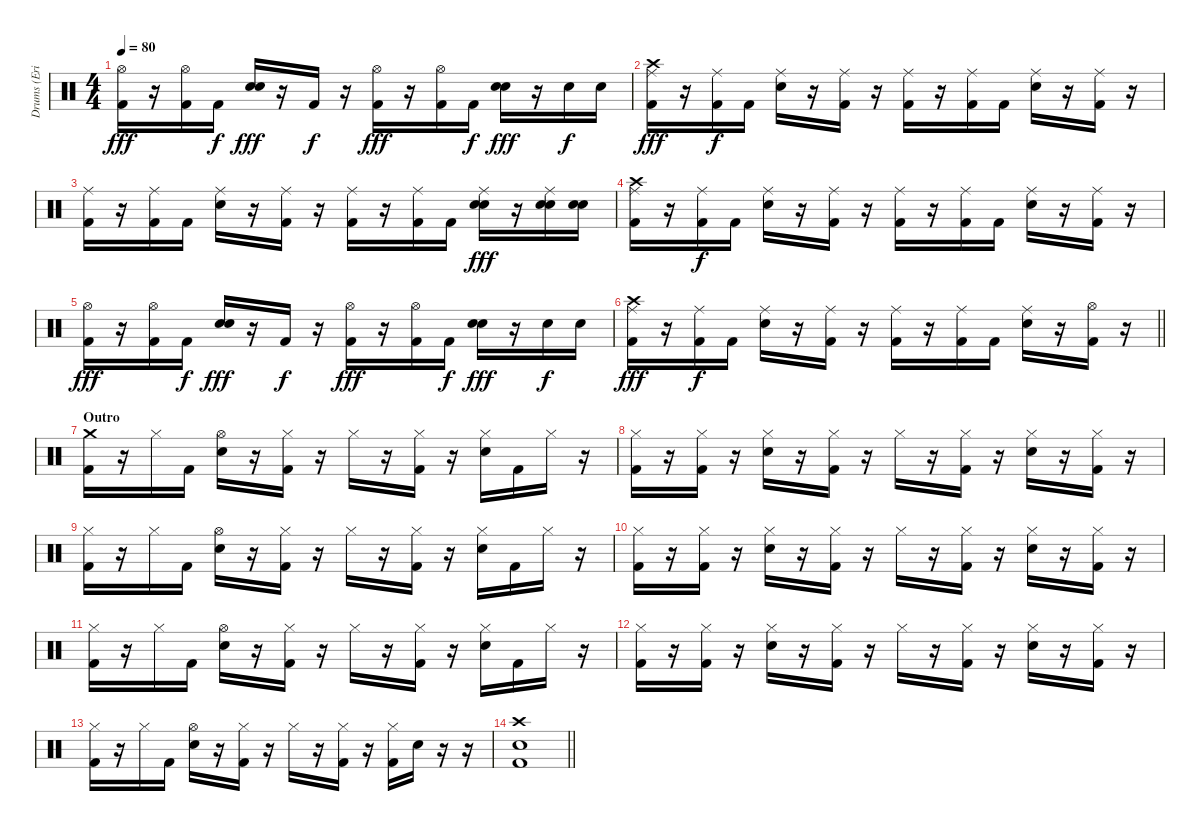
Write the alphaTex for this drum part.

\track ("Drums (Eric Kretz)" "Drums (Eri") {instrument percussion}
\staff {score}
\articulation defaults
\ts (4 4)
\tempo 80
\clef neutral
\ks c
("Hi-Hat (open)" "Kick (hit) 2").16{dy fff} r.16 ("Hi-Hat (open)" "Kick (hit) 2").16 "Kick (hit) 2".16{dy f} ("Snare (hit) 2" "Electric Snare (hit)").16{dy fff} r.16 "Kick (hit) 2".16{dy f} r.16 ("Hi-Hat (open)" "Kick (hit) 2").16{dy fff} r.16 ("Hi-Hat (open)" "Kick (hit) 2").16 "Kick (hit) 2".16{dy f} ("Snare (hit) 2" "Electric Snare (hit)").16{dy fff} r.16 "Electric Snare (hit)".16{dy f} "Electric Snare (hit)".16 |
("Crash high (hit)" "Ride (middle)" "Kick (hit) 2").16{dy fff} r.16 ("Ride (middle)" "Kick (hit) 2").16{dy f} "Kick (hit) 2".16 ("Ride (middle)" "Electric Snare (hit)").16 r.16 ("Ride (middle)" "Kick (hit) 2").16 r.16 ("Ride (middle)" "Kick (hit) 2").16 r.16 ("Ride (middle)" "Kick (hit) 2").16 "Kick (hit) 2".16 ("Ride (middle)" "Electric Snare (hit)").16 r.16 ("Ride (middle)" "Kick (hit) 2").16 r.16 |
("Ride (middle)" "Kick (hit) 2").16 r.16 ("Ride (middle)" "Kick (hit) 2").16 "Kick (hit) 2".16 ("Ride (middle)" "Electric Snare (hit)").16 r.16 ("Ride (middle)" "Kick (hit) 2").16 r.16 ("Ride (middle)" "Kick (hit) 2").16 r.16 ("Ride (middle)" "Kick (hit) 2").16 "Kick (hit) 2".16 ("Ride (middle)" "Snare (hit) 2" "Electric Snare (hit)").16{dy fff} r.16 ("Ride (middle)" "Snare (hit) 2" "Electric Snare (hit)").16 ("Snare (hit) 2" "Electric Snare (hit)").16 |
("Crash high (hit)" "Ride (middle)" "Kick (hit) 2").16 r.16 ("Ride (middle)" "Kick (hit) 2").16{dy f} "Kick (hit) 2".16 ("Ride (middle)" "Electric Snare (hit)").16 r.16 ("Ride (middle)" "Kick (hit) 2").16 r.16 ("Ride (middle)" "Kick (hit) 2").16 r.16 ("Ride (middle)" "Kick (hit) 2").16 "Kick (hit) 2".16 ("Ride (middle)" "Electric Snare (hit)").16 r.16 ("Ride (middle)" "Kick (hit) 2").16 r.16 |
("Hi-Hat (open)" "Kick (hit) 2").16{dy fff} r.16 ("Hi-Hat (open)" "Kick (hit) 2").16 "Kick (hit) 2".16{dy f} ("Snare (hit) 2" "Electric Snare (hit)").16{dy fff} r.16 "Kick (hit) 2".16{dy f} r.16 ("Hi-Hat (open)" "Kick (hit) 2").16{dy fff} r.16 ("Hi-Hat (open)" "Kick (hit) 2").16 "Kick (hit) 2".16{dy f} ("Snare (hit) 2" "Electric Snare (hit)").16{dy fff} r.16 "Electric Snare (hit)".16{dy f} "Electric Snare (hit)".16 |
\barLineRight lightlight
("Crash high (hit)" "Ride (middle)" "Kick (hit) 2").16{dy fff} r.16 ("Ride (middle)" "Kick (hit) 2").16{dy f} "Kick (hit) 2".16 ("Ride (middle)" "Electric Snare (hit)").16 r.16 ("Ride (middle)" "Kick (hit) 2").16 r.16 ("Ride (middle)" "Kick (hit) 2").16 r.16 ("Ride (middle)" "Kick (hit) 2").16 "Kick (hit) 2".16 ("Ride (middle)" "Electric Snare (hit)").16 r.16 ("Hi-Hat (open)" "Kick (hit) 2").16 r.16 |
\section ("" "Outro")
("Crash medium (hit)" "Kick (hit) 2").16 r.16 "Hi-Hat (closed)".16 "Kick (hit) 2".16 ("Hi-Hat (open)" "Electric Snare (hit)").16 r.16 ("Hi-Hat (closed)" "Kick (hit) 2").16 r.16 "Hi-Hat (closed)".16 r.16 ("Hi-Hat (closed)" "Kick (hit) 2").16 r.16 ("Hi-Hat (closed)" "Electric Snare (hit)").16 "Kick (hit) 2".16 "Hi-Hat (closed)".16 r.16 |
("Hi-Hat (closed)" "Kick (hit) 2").16 r.16 ("Hi-Hat (closed)" "Kick (hit) 2").16 r.16 ("Hi-Hat (closed)" "Electric Snare (hit)").16 r.16 ("Hi-Hat (closed)" "Kick (hit) 2").16 r.16 "Hi-Hat (closed)".16 r.16 ("Hi-Hat (closed)" "Kick (hit) 2").16 r.16 ("Hi-Hat (closed)" "Electric Snare (hit)").16 r.16 ("Hi-Hat (closed)" "Kick (hit) 2").16 r.16 |
("Hi-Hat (closed)" "Kick (hit) 2").16 r.16 "Hi-Hat (closed)".16 "Kick (hit) 2".16 ("Hi-Hat (open)" "Electric Snare (hit)").16 r.16 ("Hi-Hat (closed)" "Kick (hit) 2").16 r.16 "Hi-Hat (closed)".16 r.16 ("Hi-Hat (closed)" "Kick (hit) 2").16 r.16 ("Hi-Hat (closed)" "Electric Snare (hit)").16 "Kick (hit) 2".16 "Hi-Hat (closed)".16 r.16 |
("Hi-Hat (closed)" "Kick (hit) 2").16 r.16 ("Hi-Hat (closed)" "Kick (hit) 2").16 r.16 ("Hi-Hat (closed)" "Electric Snare (hit)").16 r.16 ("Hi-Hat (closed)" "Kick (hit) 2").16 r.16 "Hi-Hat (closed)".16 r.16 ("Hi-Hat (closed)" "Kick (hit) 2").16 r.16 ("Hi-Hat (closed)" "Electric Snare (hit)").16 r.16 ("Hi-Hat (closed)" "Kick (hit) 2").16 r.16 |
("Hi-Hat (closed)" "Kick (hit) 2").16 r.16 "Hi-Hat (closed)".16 "Kick (hit) 2".16 ("Hi-Hat (open)" "Electric Snare (hit)").16 r.16 ("Hi-Hat (closed)" "Kick (hit) 2").16 r.16 "Hi-Hat (closed)".16 r.16 ("Hi-Hat (closed)" "Kick (hit) 2").16 r.16 ("Hi-Hat (closed)" "Electric Snare (hit)").16 "Kick (hit) 2".16 "Hi-Hat (closed)".16 r.16 |
("Hi-Hat (closed)" "Kick (hit) 2").16 r.16 ("Hi-Hat (closed)" "Kick (hit) 2").16 r.16 ("Hi-Hat (closed)" "Electric Snare (hit)").16 r.16 ("Hi-Hat (closed)" "Kick (hit) 2").16 r.16 "Hi-Hat (closed)".16 r.16 ("Hi-Hat (closed)" "Kick (hit) 2").16 r.16 ("Hi-Hat (closed)" "Electric Snare (hit)").16 r.16 ("Hi-Hat (closed)" "Kick (hit) 2").16 r.16 |
("Hi-Hat (closed)" "Kick (hit) 2").16 r.16 "Hi-Hat (closed)".16 "Kick (hit) 2".16 ("Hi-Hat (open)" "Electric Snare (hit)").16 r.16 ("Hi-Hat (closed)" "Kick (hit) 2").16 r.16 "Hi-Hat (closed)".16 r.16 ("Hi-Hat (closed)" "Kick (hit) 2").16 r.16 ("Hi-Hat (closed)" "Kick (hit) 2").16 "Electric Snare (hit)".16 r.16 r.16 |
\barLineRight lightlight
("Crash high (hit)" "Electric Snare (hit)" "Kick (hit) 2").1
